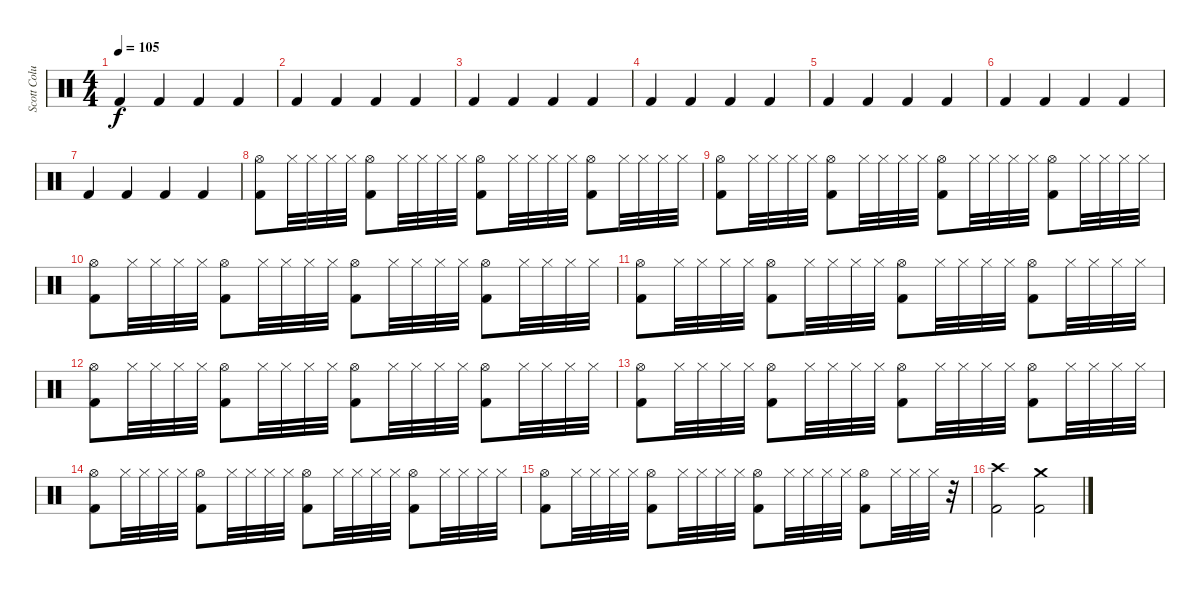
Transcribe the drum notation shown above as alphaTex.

\track ("Scott Columbus" "Scott Colu") {instrument percussion}
\staff {score}
\articulation defaults
\ts (4 4)
\tempo 105
\clef neutral
\ks c "Kick (hit) 2".4{dy f} "Kick (hit) 2".4 "Kick (hit) 2".4 "Kick (hit) 2".4
|
"Kick (hit) 2".4 "Kick (hit) 2".4 "Kick (hit) 2".4 "Kick (hit) 2".4 |
"Kick (hit) 2".4 "Kick (hit) 2".4 "Kick (hit) 2".4 "Kick (hit) 2".4 |
"Kick (hit) 2".4 "Kick (hit) 2".4 "Kick (hit) 2".4 "Kick (hit) 2".4 |
"Kick (hit) 2".4 "Kick (hit) 2".4 "Kick (hit) 2".4 "Kick (hit) 2".4 |
"Kick (hit) 2".4 "Kick (hit) 2".4 "Kick (hit) 2".4 "Kick (hit) 2".4 |
"Kick (hit) 2".4 "Kick (hit) 2".4 "Kick (hit) 2".4 "Kick (hit) 2".4 |
("Hi-Hat (open)" "Kick (hit) 2").8 "Hi-Hat (closed)".32 "Hi-Hat (closed)".32 "Hi-Hat (closed)".32 "Hi-Hat (closed)".32 ("Hi-Hat (open)" "Kick (hit) 2").8 "Hi-Hat (closed)".32 "Hi-Hat (closed)".32 "Hi-Hat (closed)".32 "Hi-Hat (closed)".32 ("Hi-Hat (open)" "Kick (hit) 2").8 "Hi-Hat (closed)".32 "Hi-Hat (closed)".32 "Hi-Hat (closed)".32 "Hi-Hat (closed)".32 ("Hi-Hat (open)" "Kick (hit) 2").8 "Hi-Hat (closed)".32 "Hi-Hat (closed)".32 "Hi-Hat (closed)".32 "Hi-Hat (closed)".32 |
("Hi-Hat (open)" "Kick (hit) 2").8 "Hi-Hat (closed)".32 "Hi-Hat (closed)".32 "Hi-Hat (closed)".32 "Hi-Hat (closed)".32 ("Hi-Hat (open)" "Kick (hit) 2").8 "Hi-Hat (closed)".32 "Hi-Hat (closed)".32 "Hi-Hat (closed)".32 "Hi-Hat (closed)".32 ("Hi-Hat (open)" "Kick (hit) 2").8 "Hi-Hat (closed)".32 "Hi-Hat (closed)".32 "Hi-Hat (closed)".32 "Hi-Hat (closed)".32 ("Hi-Hat (open)" "Kick (hit) 2").8 "Hi-Hat (closed)".32 "Hi-Hat (closed)".32 "Hi-Hat (closed)".32 "Hi-Hat (closed)".32 |
("Hi-Hat (open)" "Kick (hit) 2").8 "Hi-Hat (closed)".32 "Hi-Hat (closed)".32 "Hi-Hat (closed)".32 "Hi-Hat (closed)".32 ("Hi-Hat (open)" "Kick (hit) 2").8 "Hi-Hat (closed)".32 "Hi-Hat (closed)".32 "Hi-Hat (closed)".32 "Hi-Hat (closed)".32 ("Hi-Hat (open)" "Kick (hit) 2").8 "Hi-Hat (closed)".32 "Hi-Hat (closed)".32 "Hi-Hat (closed)".32 "Hi-Hat (closed)".32 ("Hi-Hat (open)" "Kick (hit) 2").8 "Hi-Hat (closed)".32 "Hi-Hat (closed)".32 "Hi-Hat (closed)".32 "Hi-Hat (closed)".32 |
("Hi-Hat (open)" "Kick (hit) 2").8 "Hi-Hat (closed)".32 "Hi-Hat (closed)".32 "Hi-Hat (closed)".32 "Hi-Hat (closed)".32 ("Hi-Hat (open)" "Kick (hit) 2").8 "Hi-Hat (closed)".32 "Hi-Hat (closed)".32 "Hi-Hat (closed)".32 "Hi-Hat (closed)".32 ("Hi-Hat (open)" "Kick (hit) 2").8 "Hi-Hat (closed)".32 "Hi-Hat (closed)".32 "Hi-Hat (closed)".32 "Hi-Hat (closed)".32 ("Hi-Hat (open)" "Kick (hit) 2").8 "Hi-Hat (closed)".32 "Hi-Hat (closed)".32 "Hi-Hat (closed)".32 "Hi-Hat (closed)".32 |
("Hi-Hat (open)" "Kick (hit) 2").8 "Hi-Hat (closed)".32 "Hi-Hat (closed)".32 "Hi-Hat (closed)".32 "Hi-Hat (closed)".32 ("Hi-Hat (open)" "Kick (hit) 2").8 "Hi-Hat (closed)".32 "Hi-Hat (closed)".32 "Hi-Hat (closed)".32 "Hi-Hat (closed)".32 ("Hi-Hat (open)" "Kick (hit) 2").8 "Hi-Hat (closed)".32 "Hi-Hat (closed)".32 "Hi-Hat (closed)".32 "Hi-Hat (closed)".32 ("Hi-Hat (open)" "Kick (hit) 2").8 "Hi-Hat (closed)".32 "Hi-Hat (closed)".32 "Hi-Hat (closed)".32 "Hi-Hat (closed)".32 |
("Hi-Hat (open)" "Kick (hit) 2").8 "Hi-Hat (closed)".32 "Hi-Hat (closed)".32 "Hi-Hat (closed)".32 "Hi-Hat (closed)".32 ("Hi-Hat (open)" "Kick (hit) 2").8 "Hi-Hat (closed)".32 "Hi-Hat (closed)".32 "Hi-Hat (closed)".32 "Hi-Hat (closed)".32 ("Hi-Hat (open)" "Kick (hit) 2").8 "Hi-Hat (closed)".32 "Hi-Hat (closed)".32 "Hi-Hat (closed)".32 "Hi-Hat (closed)".32 ("Hi-Hat (open)" "Kick (hit) 2").8 "Hi-Hat (closed)".32 "Hi-Hat (closed)".32 "Hi-Hat (closed)".32 "Hi-Hat (closed)".32 |
("Hi-Hat (open)" "Kick (hit) 2").8 "Hi-Hat (closed)".32 "Hi-Hat (closed)".32 "Hi-Hat (closed)".32 "Hi-Hat (closed)".32 ("Hi-Hat (open)" "Kick (hit) 2").8 "Hi-Hat (closed)".32 "Hi-Hat (closed)".32 "Hi-Hat (closed)".32 "Hi-Hat (closed)".32 ("Hi-Hat (open)" "Kick (hit) 2").8 "Hi-Hat (closed)".32 "Hi-Hat (closed)".32 "Hi-Hat (closed)".32 "Hi-Hat (closed)".32 ("Hi-Hat (open)" "Kick (hit) 2").8 "Hi-Hat (closed)".32 "Hi-Hat (closed)".32 "Hi-Hat (closed)".32 "Hi-Hat (closed)".32 |
("Hi-Hat (open)" "Kick (hit) 2").8 "Hi-Hat (closed)".32 "Hi-Hat (closed)".32 "Hi-Hat (closed)".32 "Hi-Hat (closed)".32 ("Hi-Hat (open)" "Kick (hit) 2").8 "Hi-Hat (closed)".32 "Hi-Hat (closed)".32 "Hi-Hat (closed)".32 "Hi-Hat (closed)".32 ("Hi-Hat (open)" "Kick (hit) 2").8 "Hi-Hat (closed)".32 "Hi-Hat (closed)".32 "Hi-Hat (closed)".32 "Hi-Hat (closed)".32 ("Hi-Hat (open)" "Kick (hit) 2").8 "Hi-Hat (closed)".32 "Hi-Hat (closed)".32 "Hi-Hat (closed)".32 r.32 |
("Crash high (hit)" "Kick (hit) 2").2 ("Crash medium (hit)" "Kick (hit) 2").2
